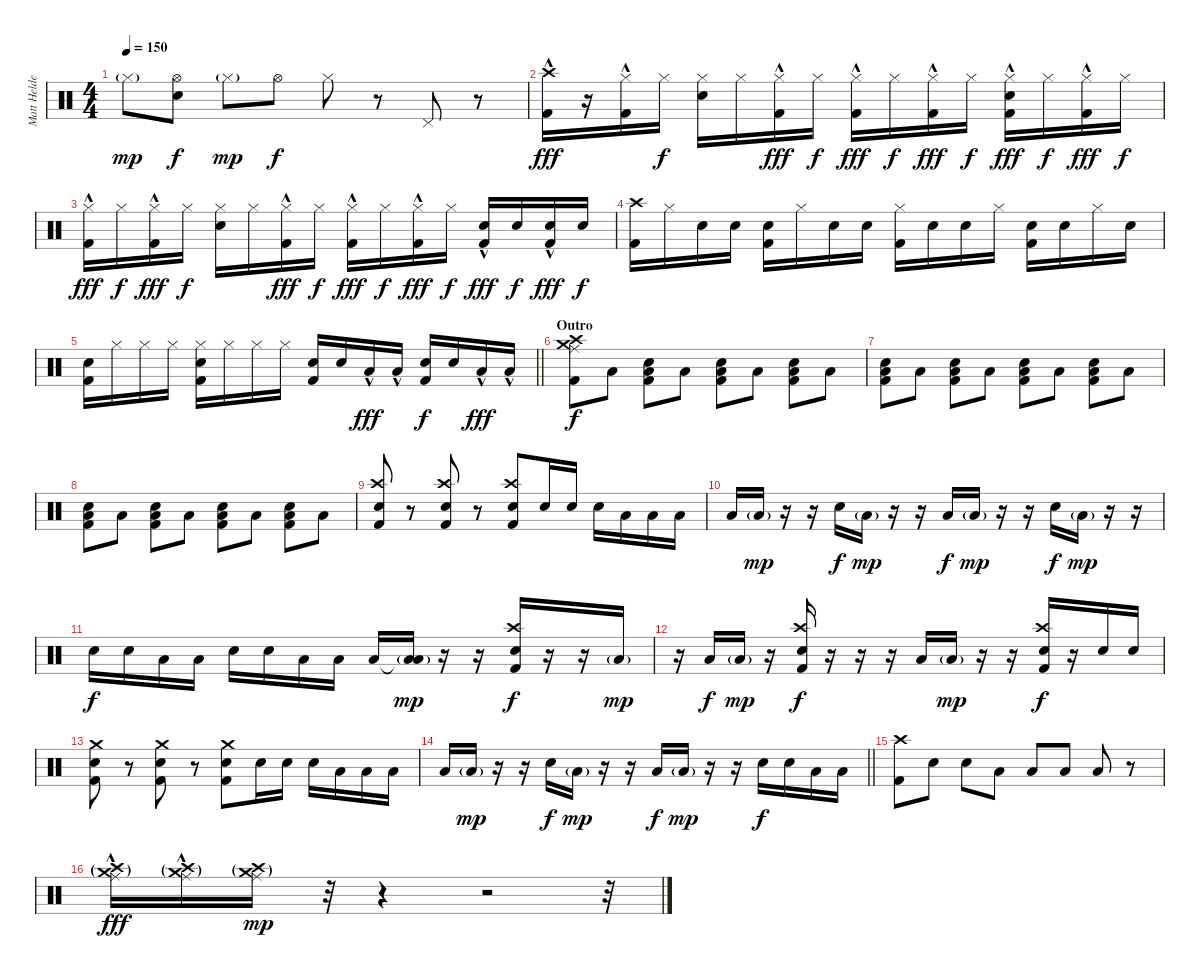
\track ("Matt Helders" "Matt Helde") {instrument percussion}
\staff {score}
\articulation defaults
\ts (4 4)
\tempo 150
\clef neutral
\ks c "Hi-Hat (closed)"{g}.8{dy mp}
("Hi-Hat (open)" "Snare (hit) 2").8{dy f} "Hi-Hat (closed)"{g}.8{dy mp} "Hi-Hat (open)".8{dy f} "Hi-Hat (closed)".8 r.8 "Pedal Hi-Hat (hit)".8 r.8 |
("Crash high (hit)" "Kick (hit) 2"{hac}).16{dy fff} r.16 ("Hi-Hat (closed)" "Kick (hit) 2"{hac}).16 "Hi-Hat (closed)".16{dy f} ("Hi-Hat (closed)" "Snare (hit) 2").16 "Hi-Hat (closed)".16 ("Hi-Hat (closed)" "Kick (hit) 2"{hac}).16{dy fff} "Hi-Hat (closed)".16{dy f} ("Hi-Hat (closed)" "Kick (hit) 2"{hac}).16{dy fff} "Hi-Hat (closed)".16{dy f} ("Hi-Hat (closed)" "Kick (hit) 2"{hac}).16{dy fff} "Hi-Hat (closed)".16{dy f} ("Hi-Hat (closed)" "Snare (hit) 2" "Kick (hit) 2"{hac}).16{dy fff} "Hi-Hat (closed)".16{dy f} ("Hi-Hat (closed)" "Kick (hit) 2"{hac}).16{dy fff} "Hi-Hat (closed)".16{dy f} |
("Hi-Hat (closed)" "Kick (hit) 2"{hac}).16{dy fff} "Hi-Hat (closed)".16{dy f} ("Hi-Hat (closed)" "Kick (hit) 2"{hac}).16{dy fff} "Hi-Hat (closed)".16{dy f} ("Hi-Hat (closed)" "Snare (hit) 2").16 "Hi-Hat (closed)".16 ("Hi-Hat (closed)" "Kick (hit) 2"{hac}).16{dy fff} "Hi-Hat (closed)".16{dy f} ("Hi-Hat (closed)" "Kick (hit) 2"{hac}).16{dy fff} "Hi-Hat (closed)".16{dy f} ("Hi-Hat (closed)" "Kick (hit) 2"{hac}).16{dy fff} "Hi-Hat (closed)".16{dy f} ("Snare (hit) 2" "Kick (hit) 2"{hac}).16{dy fff} "Snare (hit) 2".16{dy f} ("Snare (hit) 2" "Kick (hit) 2"{hac}).16{dy fff} "Snare (hit) 2".16{dy f} |
("Crash high (hit)" "Kick (hit) 2").16 "Hi-Hat (closed)".16 "Snare (hit) 2".16 "Snare (hit) 2".16 ("Snare (hit) 2" "Kick (hit) 2").16 "Hi-Hat (closed)".16 "Snare (hit) 2".16 "Snare (hit) 2".16 ("Hi-Hat (closed)" "Kick (hit) 2").16 "Snare (hit) 2".16 "Snare (hit) 2".16 "Hi-Hat (closed)".16 ("Snare (hit) 2" "Kick (hit) 2").16 "Snare (hit) 2".16 "Hi-Hat (closed)".16 "Snare (hit) 2".16 |
\barLineRight lightlight
("Snare (hit) 2" "Kick (hit) 2").16 "Hi-Hat (closed)".16 "Hi-Hat (closed)".16 "Hi-Hat (closed)".16 ("Hi-Hat (closed)" "Snare (hit) 2" "Kick (hit) 2").16 "Hi-Hat (closed)".16 "Hi-Hat (closed)".16 "Hi-Hat (closed)".16 ("Snare (hit) 2" "Kick (hit) 2").16 "Snare (hit) 2".16 "Low Tom (hit)"{hac}.16{dy fff} "Low Tom (hit)"{hac}.16 ("Snare (hit) 2" "Kick (hit) 2").16{dy f} "Snare (hit) 2".16 "Low Tom (hit)"{hac}.16{dy fff} "Low Tom (hit)"{hac}.16 |
\section ("" "Outro")
("Crash high (hit)" "Crash medium (hit)" "Kick (hit) 2" "Ride (middle)").8{dy f} "Low Tom (hit)".8 ("Snare (hit) 2" "Low Tom (hit)" "Kick (hit) 2").8 "Low Tom (hit)".8 ("Snare (hit) 2" "Low Tom (hit)" "Kick (hit) 2").8 "Low Tom (hit)".8 ("Snare (hit) 2" "Low Tom (hit)" "Kick (hit) 2").8 "Low Tom (hit)".8 |
("Snare (hit) 2" "Low Tom (hit)" "Kick (hit) 2").8 "Low Tom (hit)".8 ("Snare (hit) 2" "Low Tom (hit)" "Kick (hit) 2").8 "Low Tom (hit)".8 ("Snare (hit) 2" "Low Tom (hit)" "Kick (hit) 2").8 "Low Tom (hit)".8 ("Snare (hit) 2" "Low Tom (hit)" "Kick (hit) 2").8 "Low Tom (hit)".8 |
("Snare (hit) 2" "Low Tom (hit)" "Kick (hit) 2").8 "Low Tom (hit)".8 ("Snare (hit) 2" "Low Tom (hit)" "Kick (hit) 2").8 "Low Tom (hit)".8 ("Snare (hit) 2" "Low Tom (hit)" "Kick (hit) 2").8 "Low Tom (hit)".8 ("Snare (hit) 2" "Low Tom (hit)" "Kick (hit) 2").8 "Low Tom (hit)".8 |
("Kick (hit) 2" "Snare (hit) 2" "Crash high (hit)").8 r.8 ("Kick (hit) 2" "Snare (hit) 2" "Crash high (hit)").8 r.8 ("Kick (hit) 2" "Snare (hit) 2" "Crash high (hit)").8 "Snare (hit) 2".16 "Snare (hit) 2".16 "Snare (hit) 2".16 "Low Tom (hit)".16 "Low Tom (hit)".16 "Low Tom (hit)".16 |
"Low Tom (hit)".16 "Low Tom (hit)"{g}.16{dy mp} r.16 r.16 "Snare (hit) 2".16{dy f} "Low Tom (hit)"{g}.16{dy mp} r.16 r.16 "Low Tom (hit)".16{dy f} "Low Tom (hit)"{g}.16{dy mp} r.16 r.16 "Snare (hit) 2".16{dy f} "Low Tom (hit)"{g}.16{dy mp} r.16 r.16 |
"Snare (hit) 2".16{dy f} "Snare (hit) 2".16 "Low Tom (hit)".16 "Low Tom (hit)".16 "Snare (hit) 2".16 "Snare (hit) 2".16 "Low Tom (hit)".16 "Low Tom (hit)".16 "Low Tom (hit)".16 ("Low Tom (hit)"{t} "Low Tom (hit)"{g}).16{dy mp} r.16 r.16 ("Crash high (hit)" "Snare (hit) 2" "Kick (hit) 2").16{dy f} r.16 r.16 "Low Tom (hit)"{g}.16{dy mp} |
r.16 "Low Tom (hit)".16{dy f} "Low Tom (hit)"{g}.16{dy mp} r.16 ("Crash high (hit)" "Kick (hit) 2" "Snare (hit) 2").16{dy f} r.16 r.16 r.16 "Low Tom (hit)".16 "Low Tom (hit)"{g}.16{dy mp} r.16 r.16 ("Crash high (hit)" "Kick (hit) 2" "Snare (hit) 2").16{dy f} r.16 "Snare (hit) 2".16 "Snare (hit) 2".16 |
("Kick (hit) 2" "Snare (hit) 2" "Crash medium (hit)").8 r.8 ("Kick (hit) 2" "Snare (hit) 2" "Crash medium (hit)").8 r.8 ("Kick (hit) 2" "Snare (hit) 2" "Crash medium (hit)").8 "Snare (hit) 2".16 "Snare (hit) 2".16 "Snare (hit) 2".16 "Low Tom (hit)".16 "Low Tom (hit)".16 "Low Tom (hit)".16 |
\barLineRight lightlight "Low Tom (hit)".16 "Low Tom (hit)"{g}.16{dy mp}
r.16 r.16 "Snare (hit) 2".16{dy f} "Low Tom (hit)"{g}.16{dy mp} r.16 r.16 "Low Tom (hit)".16{dy f} "Low Tom (hit)"{g}.16{dy mp} r.16 r.16 "Snare (hit) 2".16{dy f} "Snare (hit) 2".16 "Low Tom (hit)".16 "Low Tom (hit)".16 |
("Crash high (hit)" "Kick (hit) 2").8 "Snare (hit) 2".8 "Snare (hit) 2".8 "Low Tom (hit)".8 "Low Tom (hit)".8 "Low Floor Tom (hit)".8 "Low Floor Tom (hit)".8 r.8 |
("Crash medium (hit)"{g} "Crash high (hit)"{g} "Ride (middle)"{hac}).16{dy fff} ("Crash medium (hit)"{g} "Crash high (hit)"{g} "Ride (middle)"{hac}).16 ("Crash medium (hit)"{g} "Crash high (hit)"{g} "Ride (middle)").16{dy mp} r.32 r.4 r.2 r.32
